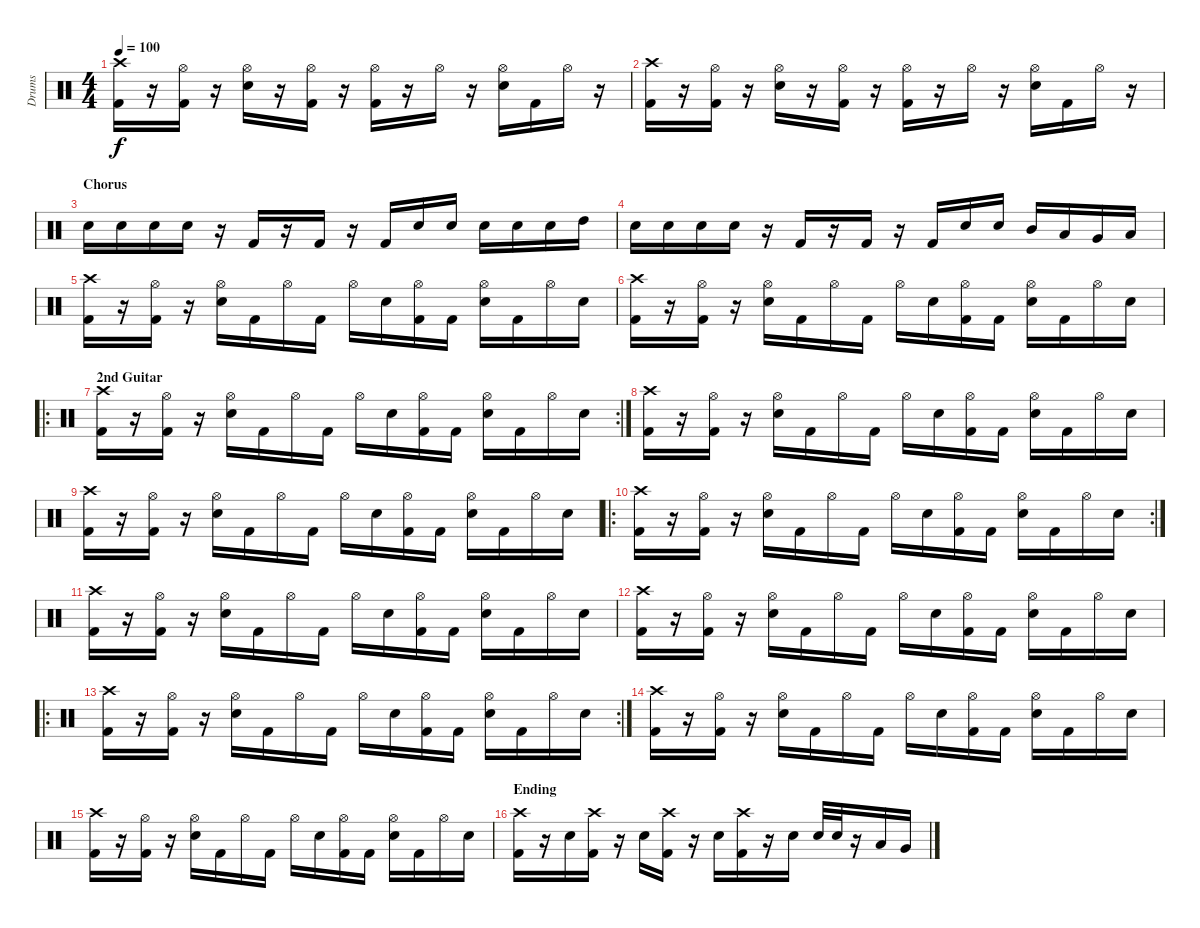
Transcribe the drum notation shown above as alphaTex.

\track ("Drums" "Drums") {instrument percussion}
\staff {score}
\articulation defaults
\ts (4 4)
\tempo 100
\clef neutral
\ks c
("Crash high (hit)" "Kick (hit) 2").16{dy f} r.16 ("Hi-Hat (open)" "Kick (hit) 2").16 r.16 ("Hi-Hat (open)" "Electric Snare (hit)").16 r.16 ("Hi-Hat (open)" "Kick (hit) 2").16 r.16 ("Hi-Hat (open)" "Kick (hit) 2").16 r.16 "Hi-Hat (open)".16 r.16 ("Hi-Hat (open)" "Electric Snare (hit)").16 "Kick (hit) 2".16 "Hi-Hat (open)".16 r.16 |
("Crash high (hit)" "Kick (hit) 2").16 r.16 ("Hi-Hat (open)" "Kick (hit) 2").16 r.16 ("Hi-Hat (open)" "Electric Snare (hit)").16 r.16 ("Hi-Hat (open)" "Kick (hit) 2").16 r.16 ("Hi-Hat (open)" "Kick (hit) 2").16 r.16 "Hi-Hat (open)".16 r.16 ("Hi-Hat (open)" "Electric Snare (hit)").16 "Kick (hit) 2".16 "Hi-Hat (open)".16 r.16 |
\section ("" "Chorus")
"Electric Snare (hit)".16 "Electric Snare (hit)".16 "Electric Snare (hit)".16 "Electric Snare (hit)".16 r.16 "Kick (hit) 2".16 r.16 "Kick (hit) 2".16 r.16 "Kick (hit) 2".16 "Electric Snare (hit)".16 "Electric Snare (hit)".16 "Electric Snare (hit)".16 "Electric Snare (hit)".16 "Electric Snare (hit)".16 "High Tom (hit)".16 |
"Electric Snare (hit)".16 "Electric Snare (hit)".16 "Electric Snare (hit)".16 "Electric Snare (hit)".16 r.16 "Kick (hit) 2".16 r.16 "Kick (hit) 2".16 r.16 "Kick (hit) 2".16 "Electric Snare (hit)".16 "Electric Snare (hit)".16 "Mid Tom (hit)".16 "Low Tom (hit)".16 "Very Low Tom (hit)".16 "Low Floor Tom (hit)".16 |
("Crash high (hit)" "Kick (hit) 2").16 r.16 ("Hi-Hat (open)" "Kick (hit) 2").16 r.16 ("Hi-Hat (open)" "Electric Snare (hit)").16 "Kick (hit) 2".16 "Hi-Hat (open)".16 "Kick (hit) 2".16 "Hi-Hat (open)".16 "Electric Snare (hit)".16 ("Hi-Hat (open)" "Kick (hit) 2").16 "Kick (hit) 2".16 ("Hi-Hat (open)" "Electric Snare (hit)").16 "Kick (hit) 2".16 "Hi-Hat (open)".16 "Electric Snare (hit)".16 |
("Crash high (hit)" "Kick (hit) 2").16 r.16 ("Hi-Hat (open)" "Kick (hit) 2").16 r.16 ("Hi-Hat (open)" "Electric Snare (hit)").16 "Kick (hit) 2".16 "Hi-Hat (open)".16 "Kick (hit) 2".16 "Hi-Hat (open)".16 "Electric Snare (hit)".16 ("Hi-Hat (open)" "Kick (hit) 2").16 "Kick (hit) 2".16 ("Hi-Hat (open)" "Electric Snare (hit)").16 "Kick (hit) 2".16 "Hi-Hat (open)".16 "Electric Snare (hit)".16 |
\ro
\rc 2
\section ("" "2nd Guitar")
("Crash high (hit)" "Kick (hit) 2").16 r.16 ("Hi-Hat (open)" "Kick (hit) 2").16 r.16 ("Hi-Hat (open)" "Electric Snare (hit)").16 "Kick (hit) 2".16 "Hi-Hat (open)".16 "Kick (hit) 2".16 "Hi-Hat (open)".16 "Electric Snare (hit)".16 ("Hi-Hat (open)" "Kick (hit) 2").16 "Kick (hit) 2".16 ("Hi-Hat (open)" "Electric Snare (hit)").16 "Kick (hit) 2".16 "Hi-Hat (open)".16 "Electric Snare (hit)".16 |
("Crash high (hit)" "Kick (hit) 2").16 r.16 ("Hi-Hat (open)" "Kick (hit) 2").16 r.16 ("Hi-Hat (open)" "Electric Snare (hit)").16 "Kick (hit) 2".16 "Hi-Hat (open)".16 "Kick (hit) 2".16 "Hi-Hat (open)".16 "Electric Snare (hit)".16 ("Hi-Hat (open)" "Kick (hit) 2").16 "Kick (hit) 2".16 ("Hi-Hat (open)" "Electric Snare (hit)").16 "Kick (hit) 2".16 "Hi-Hat (open)".16 "Electric Snare (hit)".16 |
("Crash high (hit)" "Kick (hit) 2").16 r.16 ("Hi-Hat (open)" "Kick (hit) 2").16 r.16 ("Hi-Hat (open)" "Electric Snare (hit)").16 "Kick (hit) 2".16 "Hi-Hat (open)".16 "Kick (hit) 2".16 "Hi-Hat (open)".16 "Electric Snare (hit)".16 ("Hi-Hat (open)" "Kick (hit) 2").16 "Kick (hit) 2".16 ("Hi-Hat (open)" "Electric Snare (hit)").16 "Kick (hit) 2".16 "Hi-Hat (open)".16 "Electric Snare (hit)".16 |
\ro
\rc 2
("Crash high (hit)" "Kick (hit) 2").16 r.16 ("Hi-Hat (open)" "Kick (hit) 2").16 r.16 ("Hi-Hat (open)" "Electric Snare (hit)").16 "Kick (hit) 2".16 "Hi-Hat (open)".16 "Kick (hit) 2".16 "Hi-Hat (open)".16 "Electric Snare (hit)".16 ("Hi-Hat (open)" "Kick (hit) 2").16 "Kick (hit) 2".16 ("Hi-Hat (open)" "Electric Snare (hit)").16 "Kick (hit) 2".16 "Hi-Hat (open)".16 "Electric Snare (hit)".16 |
("Crash high (hit)" "Kick (hit) 2").16 r.16 ("Hi-Hat (open)" "Kick (hit) 2").16 r.16 ("Hi-Hat (open)" "Electric Snare (hit)").16 "Kick (hit) 2".16 "Hi-Hat (open)".16 "Kick (hit) 2".16 "Hi-Hat (open)".16 "Electric Snare (hit)".16 ("Hi-Hat (open)" "Kick (hit) 2").16 "Kick (hit) 2".16 ("Hi-Hat (open)" "Electric Snare (hit)").16 "Kick (hit) 2".16 "Hi-Hat (open)".16 "Electric Snare (hit)".16 |
("Crash high (hit)" "Kick (hit) 2").16 r.16 ("Hi-Hat (open)" "Kick (hit) 2").16 r.16 ("Hi-Hat (open)" "Electric Snare (hit)").16 "Kick (hit) 2".16 "Hi-Hat (open)".16 "Kick (hit) 2".16 "Hi-Hat (open)".16 "Electric Snare (hit)".16 ("Hi-Hat (open)" "Kick (hit) 2").16 "Kick (hit) 2".16 ("Hi-Hat (open)" "Electric Snare (hit)").16 "Kick (hit) 2".16 "Hi-Hat (open)".16 "Electric Snare (hit)".16 |
\ro
\rc 2
("Crash high (hit)" "Kick (hit) 2").16 r.16 ("Hi-Hat (open)" "Kick (hit) 2").16 r.16 ("Hi-Hat (open)" "Electric Snare (hit)").16 "Kick (hit) 2".16 "Hi-Hat (open)".16 "Kick (hit) 2".16 "Hi-Hat (open)".16 "Electric Snare (hit)".16 ("Hi-Hat (open)" "Kick (hit) 2").16 "Kick (hit) 2".16 ("Hi-Hat (open)" "Electric Snare (hit)").16 "Kick (hit) 2".16 "Hi-Hat (open)".16 "Electric Snare (hit)".16 |
("Crash high (hit)" "Kick (hit) 2").16 r.16 ("Hi-Hat (open)" "Kick (hit) 2").16 r.16 ("Hi-Hat (open)" "Electric Snare (hit)").16 "Kick (hit) 2".16 "Hi-Hat (open)".16 "Kick (hit) 2".16 "Hi-Hat (open)".16 "Electric Snare (hit)".16 ("Hi-Hat (open)" "Kick (hit) 2").16 "Kick (hit) 2".16 ("Hi-Hat (open)" "Electric Snare (hit)").16 "Kick (hit) 2".16 "Hi-Hat (open)".16 "Electric Snare (hit)".16 |
("Crash high (hit)" "Kick (hit) 2").16 r.16 ("Hi-Hat (open)" "Kick (hit) 2").16 r.16 ("Hi-Hat (open)" "Electric Snare (hit)").16 "Kick (hit) 2".16 "Hi-Hat (open)".16 "Kick (hit) 2".16 "Hi-Hat (open)".16 "Electric Snare (hit)".16 ("Hi-Hat (open)" "Kick (hit) 2").16 "Kick (hit) 2".16 ("Hi-Hat (open)" "Electric Snare (hit)").16 "Kick (hit) 2".16 "Hi-Hat (open)".16 "Electric Snare (hit)".16 |
\section ("" "Ending")
("Crash high (hit)" "Kick (hit) 2").16 r.16 "Electric Snare (hit)".16 ("Crash high (hit)" "Kick (hit) 2").16 r.16 "Electric Snare (hit)".16 ("Crash high (hit)" "Kick (hit) 2").16 r.16 "Electric Snare (hit)".16 ("Crash high (hit)" "Kick (hit) 2").16 r.16 "Electric Snare (hit)".16 "Electric Snare (hit)".32 "Electric Snare (hit)".32 r.16 "Low Tom (hit)".16 "Very Low Tom (hit)".16
